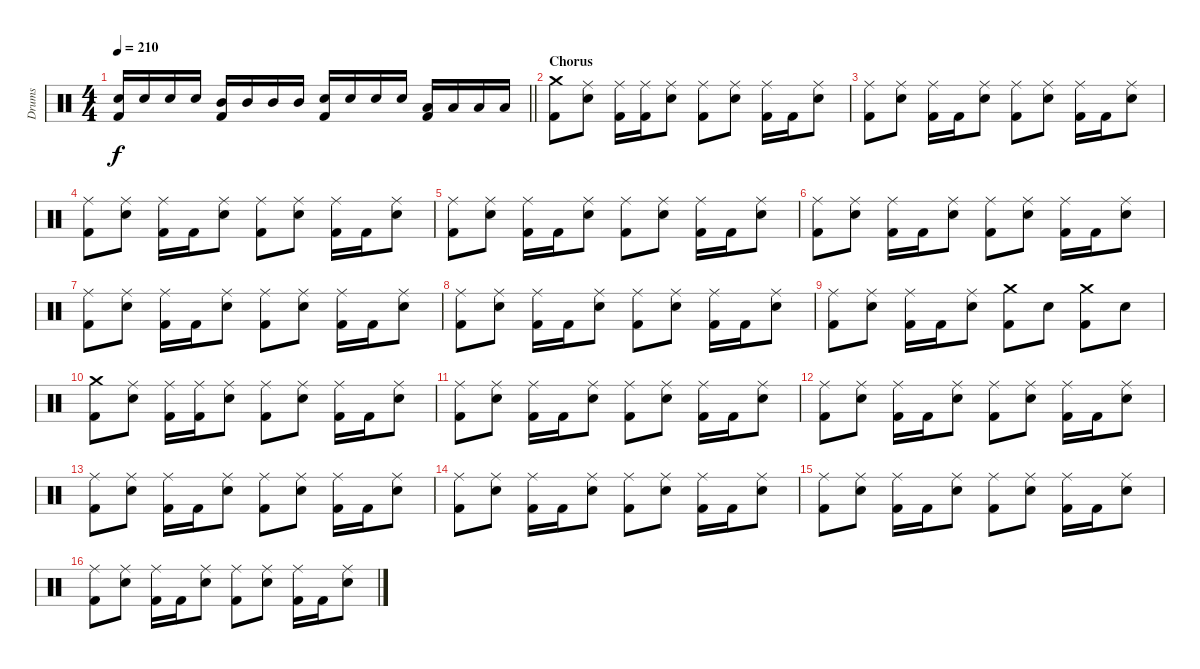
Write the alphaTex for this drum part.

\track ("Drums" "Drums") {instrument percussion}
\staff {score}
\articulation defaults
\ts (4 4)
\tempo 210
\clef neutral
\barLineRight lightlight
\ks c
("Kick (hit) 2" "Electric Snare (hit)").16{dy f} "Electric Snare (hit)".16 "Electric Snare (hit)".16 "Electric Snare (hit)".16 ("Kick (hit) 2" "Mid Tom (hit)").16 "Mid Tom (hit)".16 "Mid Tom (hit)".16 "Mid Tom (hit)".16 ("Kick (hit) 2" "Electric Snare (hit)").16 "Electric Snare (hit)".16 "Electric Snare (hit)".16 "Electric Snare (hit)".16 ("Kick (hit) 2" "Low Tom (hit)").16 "Low Tom (hit)".16 "Low Tom (hit)".16 "Low Tom (hit)".16 |
\section ("" "Chorus")
("Kick (hit) 2" "Crash medium (hit)").8 ("Electric Snare (hit)" "Ride (middle)").8 ("Kick (hit) 2" "Ride (middle)").16 ("Kick (hit) 2" "Ride (middle)").16 ("Electric Snare (hit)" "Ride (middle)").8 ("Kick (hit) 2" "Ride (middle)").8 ("Electric Snare (hit)" "Ride (middle)").8 ("Kick (hit) 2" "Ride (middle)").16 "Kick (hit) 2".16 ("Electric Snare (hit)" "Ride (middle)").8 |
("Kick (hit) 2" "Ride (middle)").8 ("Electric Snare (hit)" "Ride (middle)").8 ("Kick (hit) 2" "Ride (middle)").16 "Kick (hit) 2".16 ("Electric Snare (hit)" "Ride (middle)").8 ("Kick (hit) 2" "Ride (middle)").8 ("Electric Snare (hit)" "Ride (middle)").8 ("Kick (hit) 2" "Ride (middle)").16 "Kick (hit) 2".16 ("Electric Snare (hit)" "Ride (middle)").8 |
("Kick (hit) 2" "Ride (middle)").8 ("Electric Snare (hit)" "Ride (middle)").8 ("Kick (hit) 2" "Ride (middle)").16 "Kick (hit) 2".16 ("Electric Snare (hit)" "Ride (middle)").8 ("Kick (hit) 2" "Ride (middle)").8 ("Electric Snare (hit)" "Ride (middle)").8 ("Kick (hit) 2" "Ride (middle)").16 "Kick (hit) 2".16 ("Electric Snare (hit)" "Ride (middle)").8 |
("Kick (hit) 2" "Ride (middle)").8 ("Electric Snare (hit)" "Ride (middle)").8 ("Kick (hit) 2" "Ride (middle)").16 "Kick (hit) 2".16 ("Electric Snare (hit)" "Ride (middle)").8 ("Kick (hit) 2" "Ride (middle)").8 ("Electric Snare (hit)" "Ride (middle)").8 ("Kick (hit) 2" "Ride (middle)").16 "Kick (hit) 2".16 ("Electric Snare (hit)" "Ride (middle)").8 |
("Kick (hit) 2" "Ride (middle)").8 ("Electric Snare (hit)" "Ride (middle)").8 ("Kick (hit) 2" "Ride (middle)").16 "Kick (hit) 2".16 ("Electric Snare (hit)" "Ride (middle)").8 ("Kick (hit) 2" "Ride (middle)").8 ("Electric Snare (hit)" "Ride (middle)").8 ("Kick (hit) 2" "Ride (middle)").16 "Kick (hit) 2".16 ("Electric Snare (hit)" "Ride (middle)").8 |
("Kick (hit) 2" "Ride (middle)").8 ("Electric Snare (hit)" "Ride (middle)").8 ("Kick (hit) 2" "Ride (middle)").16 "Kick (hit) 2".16 ("Electric Snare (hit)" "Ride (middle)").8 ("Kick (hit) 2" "Ride (middle)").8 ("Electric Snare (hit)" "Ride (middle)").8 ("Kick (hit) 2" "Ride (middle)").16 "Kick (hit) 2".16 ("Electric Snare (hit)" "Ride (middle)").8 |
("Kick (hit) 2" "Ride (middle)").8 ("Electric Snare (hit)" "Ride (middle)").8 ("Kick (hit) 2" "Ride (middle)").16 "Kick (hit) 2".16 ("Electric Snare (hit)" "Ride (middle)").8 ("Kick (hit) 2" "Ride (middle)").8 ("Electric Snare (hit)" "Ride (middle)").8 ("Kick (hit) 2" "Ride (middle)").16 "Kick (hit) 2".16 ("Electric Snare (hit)" "Ride (middle)").8 |
("Kick (hit) 2" "Ride (middle)").8 ("Electric Snare (hit)" "Ride (middle)").8 ("Kick (hit) 2" "Ride (middle)").16 "Kick (hit) 2".16 ("Electric Snare (hit)" "Ride (middle)").8 ("Kick (hit) 2" "Crash medium (hit)").8 "Electric Snare (hit)".8 ("Kick (hit) 2" "Crash medium (hit)").8 "Electric Snare (hit)".8 |
("Kick (hit) 2" "Crash medium (hit)").8 ("Electric Snare (hit)" "Ride (middle)").8 ("Kick (hit) 2" "Ride (middle)").16 ("Kick (hit) 2" "Ride (middle)").16 ("Electric Snare (hit)" "Ride (middle)").8 ("Kick (hit) 2" "Ride (middle)").8 ("Electric Snare (hit)" "Ride (middle)").8 ("Kick (hit) 2" "Ride (middle)").16 "Kick (hit) 2".16 ("Electric Snare (hit)" "Ride (middle)").8 |
("Kick (hit) 2" "Ride (middle)").8 ("Electric Snare (hit)" "Ride (middle)").8 ("Kick (hit) 2" "Ride (middle)").16 "Kick (hit) 2".16 ("Electric Snare (hit)" "Ride (middle)").8 ("Kick (hit) 2" "Ride (middle)").8 ("Electric Snare (hit)" "Ride (middle)").8 ("Kick (hit) 2" "Ride (middle)").16 "Kick (hit) 2".16 ("Electric Snare (hit)" "Ride (middle)").8 |
("Kick (hit) 2" "Ride (middle)").8 ("Electric Snare (hit)" "Ride (middle)").8 ("Kick (hit) 2" "Ride (middle)").16 "Kick (hit) 2".16 ("Electric Snare (hit)" "Ride (middle)").8 ("Kick (hit) 2" "Ride (middle)").8 ("Electric Snare (hit)" "Ride (middle)").8 ("Kick (hit) 2" "Ride (middle)").16 "Kick (hit) 2".16 ("Electric Snare (hit)" "Ride (middle)").8 |
("Kick (hit) 2" "Ride (middle)").8 ("Electric Snare (hit)" "Ride (middle)").8 ("Kick (hit) 2" "Ride (middle)").16 "Kick (hit) 2".16 ("Electric Snare (hit)" "Ride (middle)").8 ("Kick (hit) 2" "Ride (middle)").8 ("Electric Snare (hit)" "Ride (middle)").8 ("Kick (hit) 2" "Ride (middle)").16 "Kick (hit) 2".16 ("Electric Snare (hit)" "Ride (middle)").8 |
("Kick (hit) 2" "Ride (middle)").8 ("Electric Snare (hit)" "Ride (middle)").8 ("Kick (hit) 2" "Ride (middle)").16 "Kick (hit) 2".16 ("Electric Snare (hit)" "Ride (middle)").8 ("Kick (hit) 2" "Ride (middle)").8 ("Electric Snare (hit)" "Ride (middle)").8 ("Kick (hit) 2" "Ride (middle)").16 "Kick (hit) 2".16 ("Electric Snare (hit)" "Ride (middle)").8 |
("Kick (hit) 2" "Ride (middle)").8 ("Electric Snare (hit)" "Ride (middle)").8 ("Kick (hit) 2" "Ride (middle)").16 "Kick (hit) 2".16 ("Electric Snare (hit)" "Ride (middle)").8 ("Kick (hit) 2" "Ride (middle)").8 ("Electric Snare (hit)" "Ride (middle)").8 ("Kick (hit) 2" "Ride (middle)").16 "Kick (hit) 2".16 ("Electric Snare (hit)" "Ride (middle)").8 |
("Kick (hit) 2" "Ride (middle)").8 ("Electric Snare (hit)" "Ride (middle)").8 ("Kick (hit) 2" "Ride (middle)").16 "Kick (hit) 2".16 ("Electric Snare (hit)" "Ride (middle)").8 ("Kick (hit) 2" "Ride (middle)").8 ("Electric Snare (hit)" "Ride (middle)").8 ("Kick (hit) 2" "Ride (middle)").16 "Kick (hit) 2".16 ("Electric Snare (hit)" "Ride (middle)").8
